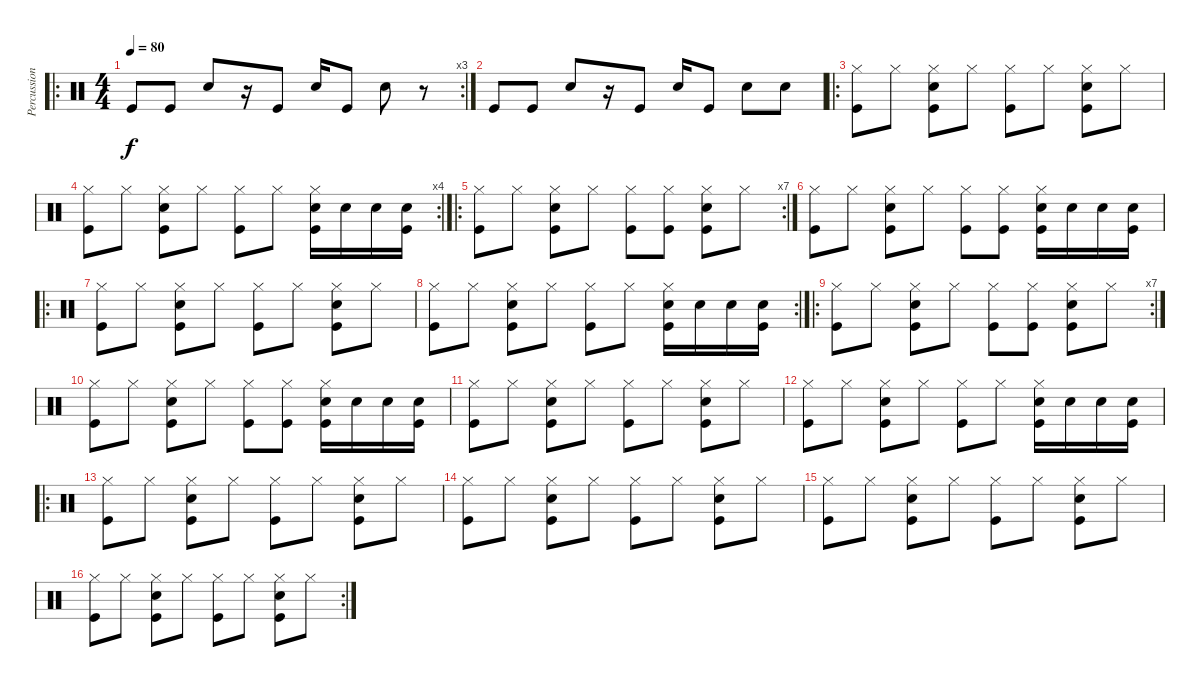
\track ("Percussion" "Percussion") {instrument percussion}
\staff {score}
\articulation defaults
\ro
\rc 3
\ts (4 4)
\tempo 80
\clef neutral
\ks c "Kick (hit)".8{dy f} "Kick (hit)".8 "Snare (hit) 2".8
r.16 "Kick (hit)".8 "Snare (hit) 2".16 "Kick (hit)".8 "Snare (hit) 2".8 r.8 |
"Kick (hit)".8 "Kick (hit)".8 "Snare (hit) 2".8 r.16 "Kick (hit)".8 "Snare (hit) 2".16 "Kick (hit)".8 "Snare (hit) 2".8 "Snare (hit) 2".8 |
\ro
("Hi-Hat (closed)" "Kick (hit)").8 "Hi-Hat (closed)".8 ("Hi-Hat (closed)" "Snare (hit) 2" "Kick (hit)").8 "Hi-Hat (closed)".8 ("Hi-Hat (closed)" "Kick (hit)").8 "Hi-Hat (closed)".8 ("Hi-Hat (closed)" "Snare (hit) 2" "Kick (hit)").8 "Hi-Hat (closed)".8 |
\rc 4
("Hi-Hat (closed)" "Kick (hit)").8 "Hi-Hat (closed)".8 ("Hi-Hat (closed)" "Snare (hit) 2" "Kick (hit)").8 "Hi-Hat (closed)".8 ("Hi-Hat (closed)" "Kick (hit)").8 "Hi-Hat (closed)".8 ("Hi-Hat (closed)" "Snare (hit) 2" "Kick (hit)").16 "Snare (hit) 2".16 "Snare (hit) 2".16 ("Snare (hit) 2" "Kick (hit)").16 |
\ro
\rc 7
("Hi-Hat (closed)" "Kick (hit)").8 "Hi-Hat (closed)".8 ("Hi-Hat (closed)" "Snare (hit) 2" "Kick (hit)").8 "Hi-Hat (closed)".8 ("Hi-Hat (closed)" "Kick (hit)").8 ("Hi-Hat (closed)" "Kick (hit)").8 ("Hi-Hat (closed)" "Snare (hit) 2" "Kick (hit)").8 "Hi-Hat (closed)".8 |
("Hi-Hat (closed)" "Kick (hit)").8 "Hi-Hat (closed)".8 ("Hi-Hat (closed)" "Snare (hit) 2" "Kick (hit)").8 "Hi-Hat (closed)".8 ("Hi-Hat (closed)" "Kick (hit)").8 ("Hi-Hat (closed)" "Kick (hit)").8 ("Hi-Hat (closed)" "Snare (hit) 2" "Kick (hit)").16 "Snare (hit) 2".16 "Snare (hit) 2".16 ("Snare (hit) 2" "Kick (hit)").16 |
\ro
("Hi-Hat (closed)" "Kick (hit)").8 "Hi-Hat (closed)".8 ("Hi-Hat (closed)" "Snare (hit) 2" "Kick (hit)").8 "Hi-Hat (closed)".8 ("Hi-Hat (closed)" "Kick (hit)").8 "Hi-Hat (closed)".8 ("Hi-Hat (closed)" "Snare (hit) 2" "Kick (hit)").8 "Hi-Hat (closed)".8 |
\rc 2
("Hi-Hat (closed)" "Kick (hit)").8 "Hi-Hat (closed)".8 ("Hi-Hat (closed)" "Snare (hit) 2" "Kick (hit)").8 "Hi-Hat (closed)".8 ("Hi-Hat (closed)" "Kick (hit)").8 "Hi-Hat (closed)".8 ("Hi-Hat (closed)" "Snare (hit) 2" "Kick (hit)").16 "Snare (hit) 2".16 "Snare (hit) 2".16 ("Snare (hit) 2" "Kick (hit)").16 |
\ro
\rc 7
("Hi-Hat (closed)" "Kick (hit)").8 "Hi-Hat (closed)".8 ("Hi-Hat (closed)" "Snare (hit) 2" "Kick (hit)").8 "Hi-Hat (closed)".8 ("Hi-Hat (closed)" "Kick (hit)").8 ("Hi-Hat (closed)" "Kick (hit)").8 ("Hi-Hat (closed)" "Snare (hit) 2" "Kick (hit)").8 "Hi-Hat (closed)".8 |
("Hi-Hat (closed)" "Kick (hit)").8 "Hi-Hat (closed)".8 ("Hi-Hat (closed)" "Snare (hit) 2" "Kick (hit)").8 "Hi-Hat (closed)".8 ("Hi-Hat (closed)" "Kick (hit)").8 ("Hi-Hat (closed)" "Kick (hit)").8 ("Hi-Hat (closed)" "Snare (hit) 2" "Kick (hit)").16 "Snare (hit) 2".16 "Snare (hit) 2".16 ("Snare (hit) 2" "Kick (hit)").16 |
("Hi-Hat (closed)" "Kick (hit)").8 "Hi-Hat (closed)".8 ("Hi-Hat (closed)" "Snare (hit) 2" "Kick (hit)").8 "Hi-Hat (closed)".8 ("Hi-Hat (closed)" "Kick (hit)").8 "Hi-Hat (closed)".8 ("Hi-Hat (closed)" "Snare (hit) 2" "Kick (hit)").8 "Hi-Hat (closed)".8 |
("Hi-Hat (closed)" "Kick (hit)").8 "Hi-Hat (closed)".8 ("Hi-Hat (closed)" "Snare (hit) 2" "Kick (hit)").8 "Hi-Hat (closed)".8 ("Hi-Hat (closed)" "Kick (hit)").8 "Hi-Hat (closed)".8 ("Hi-Hat (closed)" "Snare (hit) 2" "Kick (hit)").16 "Snare (hit) 2".16 "Snare (hit) 2".16 ("Snare (hit) 2" "Kick (hit)").16 |
\ro
("Hi-Hat (closed)" "Kick (hit)").8 "Hi-Hat (closed)".8 ("Hi-Hat (closed)" "Snare (hit) 2" "Kick (hit)").8 "Hi-Hat (closed)".8 ("Hi-Hat (closed)" "Kick (hit)").8 "Hi-Hat (closed)".8 ("Hi-Hat (closed)" "Snare (hit) 2" "Kick (hit)").8 "Hi-Hat (closed)".8 |
("Hi-Hat (closed)" "Kick (hit)").8 "Hi-Hat (closed)".8 ("Hi-Hat (closed)" "Snare (hit) 2" "Kick (hit)").8 "Hi-Hat (closed)".8 ("Hi-Hat (closed)" "Kick (hit)").8 "Hi-Hat (closed)".8 ("Hi-Hat (closed)" "Snare (hit) 2" "Kick (hit)").8 "Hi-Hat (closed)".8 |
("Hi-Hat (closed)" "Kick (hit)").8 "Hi-Hat (closed)".8 ("Hi-Hat (closed)" "Snare (hit) 2" "Kick (hit)").8 "Hi-Hat (closed)".8 ("Hi-Hat (closed)" "Kick (hit)").8 "Hi-Hat (closed)".8 ("Hi-Hat (closed)" "Snare (hit) 2" "Kick (hit)").8 "Hi-Hat (closed)".8 |
\rc 2
("Hi-Hat (closed)" "Kick (hit)").8 "Hi-Hat (closed)".8 ("Hi-Hat (closed)" "Snare (hit) 2" "Kick (hit)").8 "Hi-Hat (closed)".8 ("Hi-Hat (closed)" "Kick (hit)").8 "Hi-Hat (closed)".8 ("Hi-Hat (closed)" "Snare (hit) 2" "Kick (hit)").8 "Hi-Hat (closed)".8
